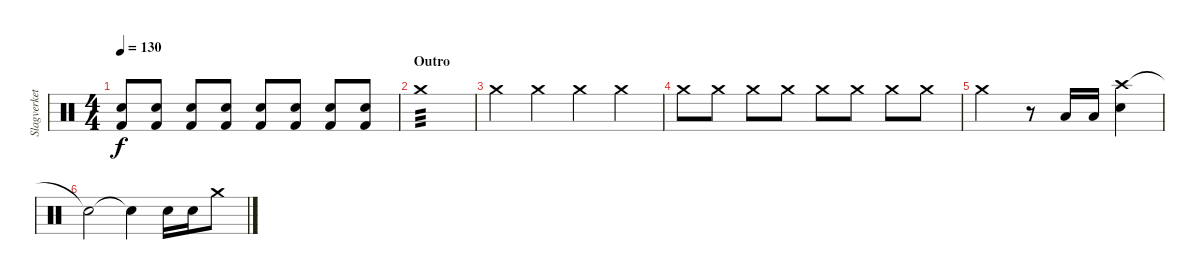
\track ("Slagverket !!" "Slagverket") {instrument percussion}
\staff {score}
\articulation defaults
\ts (4 4)
\tempo 130
\clef neutral
\ks c
("Snare (hit) 2" "Kick (hit) 2").8{dy f} ("Snare (hit) 2" "Kick (hit) 2").8 ("Snare (hit) 2" "Kick (hit) 2").8 ("Snare (hit) 2" "Kick (hit) 2").8 ("Snare (hit) 2" "Kick (hit) 2").8 ("Snare (hit) 2" "Kick (hit) 2").8 ("Snare (hit) 2" "Kick (hit) 2").8 ("Snare (hit) 2" "Kick (hit) 2").8 |
\section ("" "Outro")
"Crash medium (hit)".1{tp 3} |
"Crash medium (hit)".4 "Crash medium (hit)".4 "Crash medium (hit)".4 "Crash medium (hit)".4 |
"Crash medium (hit)".8 "Crash medium (hit)".8 "Crash medium (hit)".8 "Crash medium (hit)".8 "Crash medium (hit)".8 "Crash medium (hit)".8 "Crash medium (hit)".8 "Crash medium (hit)".8 |
"Crash medium (hit)".2 r.8 "Low Tom (hit)".16 "Low Tom (hit)".16 ("Crash high (hit)" "Electric Snare (hit)").4 |
"Snare (hit)"{t}.2 "Snare (hit)"{t}.4 "Electric Snare (hit)".16 "Electric Snare (hit)".16 "Crash medium (hit)".8
